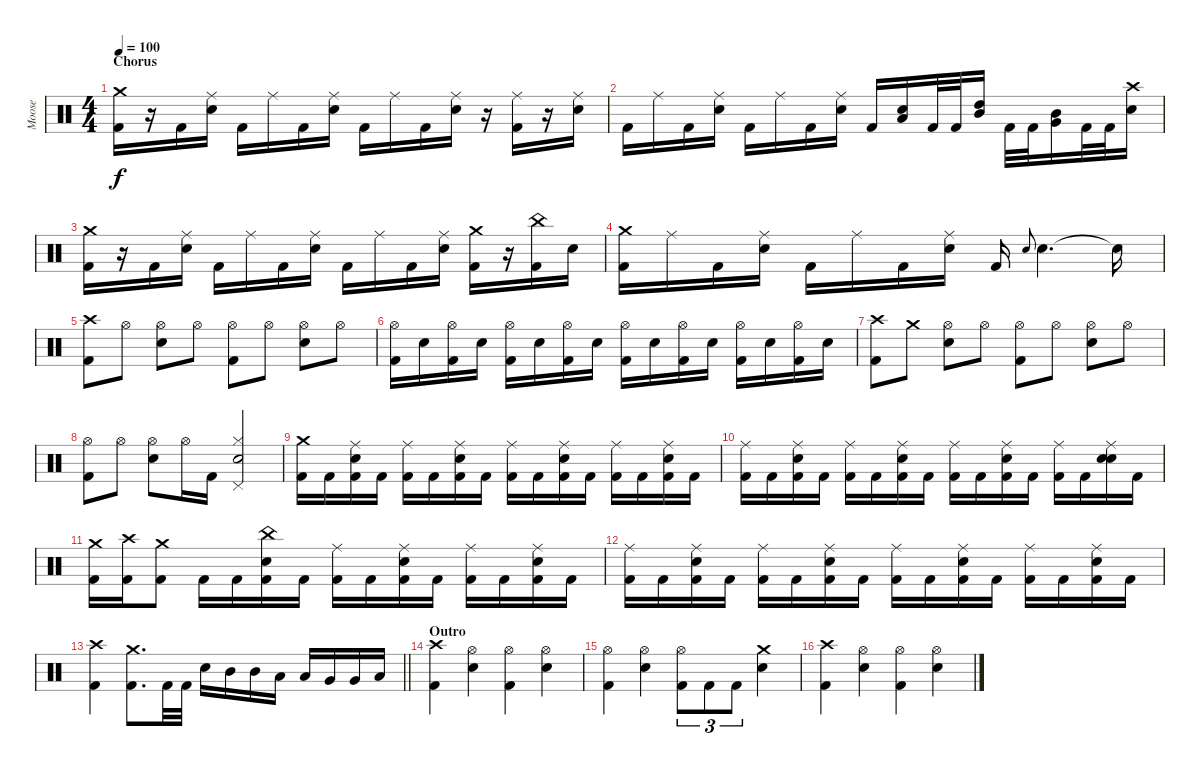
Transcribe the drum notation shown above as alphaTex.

\track ("Moose" "Moose") {instrument percussion}
\staff {score}
\articulation defaults
\ts (4 4)
\section ("" "Chorus")
\tempo 100
\clef neutral
\ks c
("Crash medium (hit)" "Kick (hit) 2").16{dy f} r.16 "Kick (hit) 2".16 ("Ride (middle)" "Electric Snare (hit)").16 "Kick (hit) 2".16 "Ride (middle)".16 "Kick (hit) 2".16 ("Ride (middle)" "Electric Snare (hit)").16 "Kick (hit) 2".16 "Ride (middle)".16 "Kick (hit) 2".16 ("Ride (middle)" "Electric Snare (hit)").16 r.16 ("Ride (middle)" "Kick (hit) 2").16 r.16 ("Ride (middle)" "Electric Snare (hit)").16 |
"Kick (hit) 2".16 "Ride (middle)".16 "Kick (hit) 2".16 ("Ride (middle)" "Electric Snare (hit)").16 "Kick (hit) 2".16 "Ride (middle)".16 "Kick (hit) 2".16 ("Ride (middle)" "Electric Snare (hit)").16 "Kick (hit) 2".16 ("Low Tom (hit)" "Electric Snare (hit)").16 "Kick (hit) 2".32 "Kick (hit) 2".32 ("Mid Tom (hit)" "High Tom (hit)").16 "Kick (hit) 2".32 "Kick (hit) 2".32 ("Very Low Tom (hit)" "Mid Tom (hit)").16 "Kick (hit) 2".32 "Kick (hit) 2".32 ("Crash high (hit)" "Electric Snare (hit)").16 |
("Crash medium (hit)" "Kick (hit) 2").16 r.16 "Kick (hit) 2".16 ("Ride (middle)" "Electric Snare (hit)").16 "Kick (hit) 2".16 "Ride (middle)".16 "Kick (hit) 2".16 ("Ride (middle)" "Electric Snare (hit)").16 "Kick (hit) 2".16 "Ride (middle)".16 "Kick (hit) 2".16 ("Ride (middle)" "Electric Snare (hit)").16 ("Crash medium (hit)" "Kick (hit) 2").16 r.16 ("China (hit)" "Kick (hit) 2").16 "Electric Snare (hit)".16 |
("Crash medium (hit)" "Kick (hit) 2").16 "Ride (middle)".16 "Kick (hit) 2".16 ("Ride (middle)" "Electric Snare (hit)").16 "Kick (hit) 2".16 "Ride (middle)".16 "Kick (hit) 2".16 ("Ride (middle)" "Electric Snare (hit)").16 "Kick (hit) 2".16 "Electric Snare (hit)".8{gr onbeat} "Electric Snare (hit)".4{d} "Snare (hit)"{t}.16 |
("Crash high (hit)" "Kick (hit) 2").8 "Hi-Hat (open)".8 ("Hi-Hat (open)" "Electric Snare (hit)").8 "Hi-Hat (open)".8 ("Hi-Hat (open)" "Kick (hit) 2").8 "Hi-Hat (open)".8 ("Hi-Hat (open)" "Electric Snare (hit)").8 "Hi-Hat (open)".8 |
("Hi-Hat (open)" "Kick (hit) 2").16 "Electric Snare (hit)".16 ("Hi-Hat (open)" "Kick (hit) 2").16 "Electric Snare (hit)".16 ("Hi-Hat (open)" "Kick (hit) 2").16 "Electric Snare (hit)".16 ("Hi-Hat (open)" "Kick (hit) 2").16 "Electric Snare (hit)".16 ("Hi-Hat (open)" "Kick (hit) 2").16 "Electric Snare (hit)".16 ("Hi-Hat (open)" "Kick (hit) 2").16 "Electric Snare (hit)".16 ("Hi-Hat (open)" "Kick (hit) 2").16 "Electric Snare (hit)".16 ("Hi-Hat (open)" "Kick (hit) 2").16 "Electric Snare (hit)".16 |
("Crash high (hit)" "Kick (hit) 2").8 "Crash medium (hit)".8 ("Hi-Hat (open)" "Electric Snare (hit)").8 "Hi-Hat (open)".8 ("Hi-Hat (open)" "Kick (hit) 2").8 "Hi-Hat (open)".8 ("Hi-Hat (open)" "Electric Snare (hit)").8 "Hi-Hat (open)".8 |
("Hi-Hat (open)" "Kick (hit) 2").8 "Hi-Hat (open)".8 ("Hi-Hat (open)" "Electric Snare (hit)").8 "Hi-Hat (open)".16 "Kick (hit) 2".16 ("Hi-Hat (closed)" "Pedal Hi-Hat (hit)" "Electric Snare (hit)").2 |
("Crash medium (hit)" "Kick (hit) 2").16 "Kick (hit) 2".16 ("Ride (middle)" "Electric Snare (hit)" "Kick (hit) 2").16 "Kick (hit) 2".16 ("Ride (middle)" "Kick (hit) 2").16 "Kick (hit) 2".16 ("Ride (middle)" "Electric Snare (hit)" "Kick (hit) 2").16 "Kick (hit) 2".16 ("Ride (middle)" "Kick (hit) 2").16 "Kick (hit) 2".16 ("Ride (middle)" "Electric Snare (hit)" "Kick (hit) 2").16 "Kick (hit) 2".16 ("Ride (middle)" "Kick (hit) 2").16 "Kick (hit) 2".16 ("Ride (middle)" "Electric Snare (hit)" "Kick (hit) 2").16 "Kick (hit) 2".16 |
("Ride (middle)" "Kick (hit) 2").16 "Kick (hit) 2".16 ("Ride (middle)" "Electric Snare (hit)" "Kick (hit) 2").16 "Kick (hit) 2".16 ("Ride (middle)" "Kick (hit) 2").16 "Kick (hit) 2".16 ("Ride (middle)" "Electric Snare (hit)" "Kick (hit) 2").16 "Kick (hit) 2".16 ("Ride (middle)" "Kick (hit) 2").16 "Kick (hit) 2".16 ("Ride (middle)" "Electric Snare (hit)" "Kick (hit) 2").16 "Kick (hit) 2".16 ("Ride (middle)" "Kick (hit) 2").16 "Kick (hit) 2".16 ("Ride (middle)" "Electric Snare (hit)" "Snare (hit)").16 "Kick (hit) 2".16 |
("Crash medium (hit)" "Kick (hit) 2").16 ("Crash high (hit)" "Kick (hit) 2").16 ("Crash medium (hit)" "Kick (hit) 2").8 "Kick (hit) 2".16 "Kick (hit) 2".16 ("China (hit)" "Electric Snare (hit)" "Kick (hit) 2").16 "Kick (hit) 2".16 ("Ride (middle)" "Kick (hit) 2").16 "Kick (hit) 2".16 ("Ride (middle)" "Electric Snare (hit)" "Kick (hit) 2").16 "Kick (hit) 2".16 ("Ride (middle)" "Kick (hit) 2").16 "Kick (hit) 2".16 ("Ride (middle)" "Electric Snare (hit)" "Kick (hit) 2").16 "Kick (hit) 2".16 |
("Ride (middle)" "Kick (hit) 2").16 "Kick (hit) 2".16 ("Ride (middle)" "Electric Snare (hit)" "Kick (hit) 2").16 "Kick (hit) 2".16 ("Ride (middle)" "Kick (hit) 2").16 "Kick (hit) 2".16 ("Ride (middle)" "Electric Snare (hit)" "Kick (hit) 2").16 "Kick (hit) 2".16 ("Ride (middle)" "Kick (hit) 2").16 "Kick (hit) 2".16 ("Ride (middle)" "Electric Snare (hit)" "Kick (hit) 2").16 "Kick (hit) 2".16 ("Ride (middle)" "Kick (hit) 2").16 "Kick (hit) 2".16 ("Ride (middle)" "Electric Snare (hit)" "Kick (hit) 2").16 "Kick (hit) 2".16 |
\barLineRight lightlight
("Crash high (hit)" "Kick (hit) 2").4 ("Crash medium (hit)" "Kick (hit) 2").8{d} "Kick (hit) 2".32 "Kick (hit) 2".32 "Electric Snare (hit)".16 "Mid Tom (hit)".16 "Mid Tom (hit)".16 "Low Tom (hit)".16 "Low Tom (hit)".16 "Very Low Tom (hit)".16 "Very Low Tom (hit)".16 "Low Floor Tom (hit)".16 |
\section ("" "Outro")
("Crash high (hit)" "Kick (hit) 2").4 ("Hi-Hat (open)" "Electric Snare (hit)").4 ("Hi-Hat (open)" "Kick (hit) 2").4 ("Hi-Hat (open)" "Electric Snare (hit)").4 |
("Hi-Hat (open)" "Kick (hit) 2").4 ("Hi-Hat (open)" "Electric Snare (hit)").4 ("Hi-Hat (open)" "Kick (hit) 2").8{tu (3 2)} "Kick (hit) 2".8{tu (3 2)} "Kick (hit) 2".8{tu (3 2)} ("Crash medium (hit)" "Electric Snare (hit)").4 |
("Crash high (hit)" "Kick (hit) 2").4 ("Hi-Hat (open)" "Electric Snare (hit)").4 ("Hi-Hat (open)" "Kick (hit) 2").4 ("Hi-Hat (open)" "Electric Snare (hit)").4
